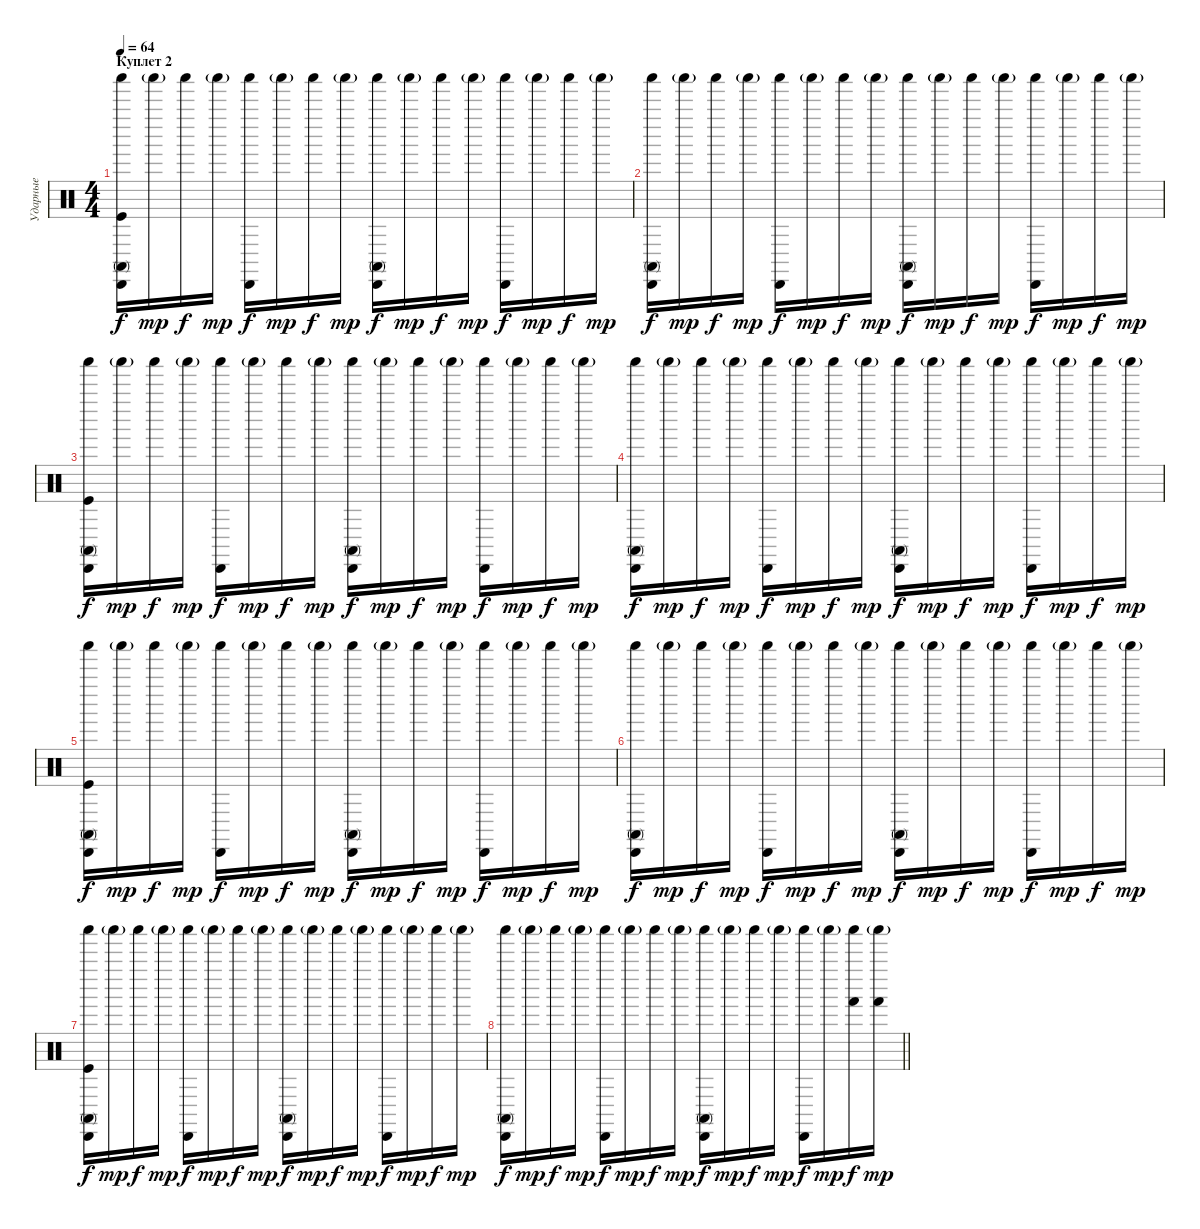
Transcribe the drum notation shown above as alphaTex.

\track ("Ударные" "Ударные") {instrument percussion}
\staff {score}
\articulation defaults
\ts (4 4)
\section ("" "Куплет 2")
\tempo 64
\clef neutral
\ks c
("Kick (hit)" "Conga high (mute)" "Cabasa (hit)" "Shaker (hit)").16{dy f} "Shaker (hit)"{g}.16{dy mp} "Shaker (hit)".16{dy f} "Shaker (hit)"{g}.16{dy mp} ("Cabasa (hit)" "Shaker (hit)").16{dy f} "Shaker (hit)"{g}.16{dy mp} "Shaker (hit)".16{dy f} "Shaker (hit)"{g}.16{dy mp} ("Conga high (mute)" "Cabasa (hit)" "Shaker (hit)").16{dy f} "Shaker (hit)"{g}.16{dy mp} "Shaker (hit)".16{dy f} "Shaker (hit)"{g}.16{dy mp} ("Cabasa (hit)" "Shaker (hit)").16{dy f} "Shaker (hit)"{g}.16{dy mp} "Shaker (hit)".16{dy f} "Shaker (hit)"{g}.16{dy mp} |
("Conga high (mute)" "Cabasa (hit)" "Shaker (hit)").16{dy f} "Shaker (hit)"{g}.16{dy mp} "Shaker (hit)".16{dy f} "Shaker (hit)"{g}.16{dy mp} ("Cabasa (hit)" "Shaker (hit)").16{dy f} "Shaker (hit)"{g}.16{dy mp} "Shaker (hit)".16{dy f} "Shaker (hit)"{g}.16{dy mp} ("Conga high (mute)" "Cabasa (hit)" "Shaker (hit)").16{dy f} "Shaker (hit)"{g}.16{dy mp} "Shaker (hit)".16{dy f} "Shaker (hit)"{g}.16{dy mp} ("Cabasa (hit)" "Shaker (hit)").16{dy f} "Shaker (hit)"{g}.16{dy mp} "Shaker (hit)".16{dy f} "Shaker (hit)"{g}.16{dy mp} |
("Kick (hit)" "Conga high (mute)" "Cabasa (hit)" "Shaker (hit)").16{dy f} "Shaker (hit)"{g}.16{dy mp} "Shaker (hit)".16{dy f} "Shaker (hit)"{g}.16{dy mp} ("Cabasa (hit)" "Shaker (hit)").16{dy f} "Shaker (hit)"{g}.16{dy mp} "Shaker (hit)".16{dy f} "Shaker (hit)"{g}.16{dy mp} ("Conga high (mute)" "Cabasa (hit)" "Shaker (hit)").16{dy f} "Shaker (hit)"{g}.16{dy mp} "Shaker (hit)".16{dy f} "Shaker (hit)"{g}.16{dy mp} ("Cabasa (hit)" "Shaker (hit)").16{dy f} "Shaker (hit)"{g}.16{dy mp} "Shaker (hit)".16{dy f} "Shaker (hit)"{g}.16{dy mp} |
("Conga high (mute)" "Cabasa (hit)" "Shaker (hit)").16{dy f} "Shaker (hit)"{g}.16{dy mp} "Shaker (hit)".16{dy f} "Shaker (hit)"{g}.16{dy mp} ("Cabasa (hit)" "Shaker (hit)").16{dy f} "Shaker (hit)"{g}.16{dy mp} "Shaker (hit)".16{dy f} "Shaker (hit)"{g}.16{dy mp} ("Conga high (mute)" "Cabasa (hit)" "Shaker (hit)").16{dy f} "Shaker (hit)"{g}.16{dy mp} "Shaker (hit)".16{dy f} "Shaker (hit)"{g}.16{dy mp} ("Cabasa (hit)" "Shaker (hit)").16{dy f} "Shaker (hit)"{g}.16{dy mp} "Shaker (hit)".16{dy f} "Shaker (hit)"{g}.16{dy mp} |
("Kick (hit)" "Conga high (mute)" "Cabasa (hit)" "Shaker (hit)").16{dy f} "Shaker (hit)"{g}.16{dy mp} "Shaker (hit)".16{dy f} "Shaker (hit)"{g}.16{dy mp} ("Cabasa (hit)" "Shaker (hit)").16{dy f} "Shaker (hit)"{g}.16{dy mp} "Shaker (hit)".16{dy f} "Shaker (hit)"{g}.16{dy mp} ("Conga high (mute)" "Cabasa (hit)" "Shaker (hit)").16{dy f} "Shaker (hit)"{g}.16{dy mp} "Shaker (hit)".16{dy f} "Shaker (hit)"{g}.16{dy mp} ("Cabasa (hit)" "Shaker (hit)").16{dy f} "Shaker (hit)"{g}.16{dy mp} "Shaker (hit)".16{dy f} "Shaker (hit)"{g}.16{dy mp} |
("Conga high (mute)" "Cabasa (hit)" "Shaker (hit)").16{dy f} "Shaker (hit)"{g}.16{dy mp} "Shaker (hit)".16{dy f} "Shaker (hit)"{g}.16{dy mp} ("Cabasa (hit)" "Shaker (hit)").16{dy f} "Shaker (hit)"{g}.16{dy mp} "Shaker (hit)".16{dy f} "Shaker (hit)"{g}.16{dy mp} ("Conga high (mute)" "Cabasa (hit)" "Shaker (hit)").16{dy f} "Shaker (hit)"{g}.16{dy mp} "Shaker (hit)".16{dy f} "Shaker (hit)"{g}.16{dy mp} ("Cabasa (hit)" "Shaker (hit)").16{dy f} "Shaker (hit)"{g}.16{dy mp} "Shaker (hit)".16{dy f} "Shaker (hit)"{g}.16{dy mp} |
("Kick (hit)" "Conga high (mute)" "Cabasa (hit)" "Shaker (hit)").16{dy f} "Shaker (hit)"{g}.16{dy mp} "Shaker (hit)".16{dy f} "Shaker (hit)"{g}.16{dy mp} ("Cabasa (hit)" "Shaker (hit)").16{dy f} "Shaker (hit)"{g}.16{dy mp} "Shaker (hit)".16{dy f} "Shaker (hit)"{g}.16{dy mp} ("Conga high (mute)" "Cabasa (hit)" "Shaker (hit)").16{dy f} "Shaker (hit)"{g}.16{dy mp} "Shaker (hit)".16{dy f} "Shaker (hit)"{g}.16{dy mp} ("Cabasa (hit)" "Shaker (hit)").16{dy f} "Shaker (hit)"{g}.16{dy mp} "Shaker (hit)".16{dy f} "Shaker (hit)"{g}.16{dy mp} |
\barLineRight lightlight
("Conga high (mute)" "Cabasa (hit)" "Shaker (hit)").16{dy f} "Shaker (hit)"{g}.16{dy mp} "Shaker (hit)".16{dy f} "Shaker (hit)"{g}.16{dy mp} ("Cabasa (hit)" "Shaker (hit)").16{dy f} "Shaker (hit)"{g}.16{dy mp} "Shaker (hit)".16{dy f} "Shaker (hit)"{g}.16{dy mp} ("Conga high (mute)" "Cabasa (hit)" "Shaker (hit)").16{dy f} "Shaker (hit)"{g}.16{dy mp} "Shaker (hit)".16{dy f} "Shaker (hit)"{g}.16{dy mp} ("Cabasa (hit)" "Shaker (hit)").16{dy f} "Shaker (hit)"{g}.16{dy mp} ("Hand (hit)" "Shaker (hit)").16{dy f} ("Hand (hit)" "Shaker (hit)"{g}).16{dy mp}
